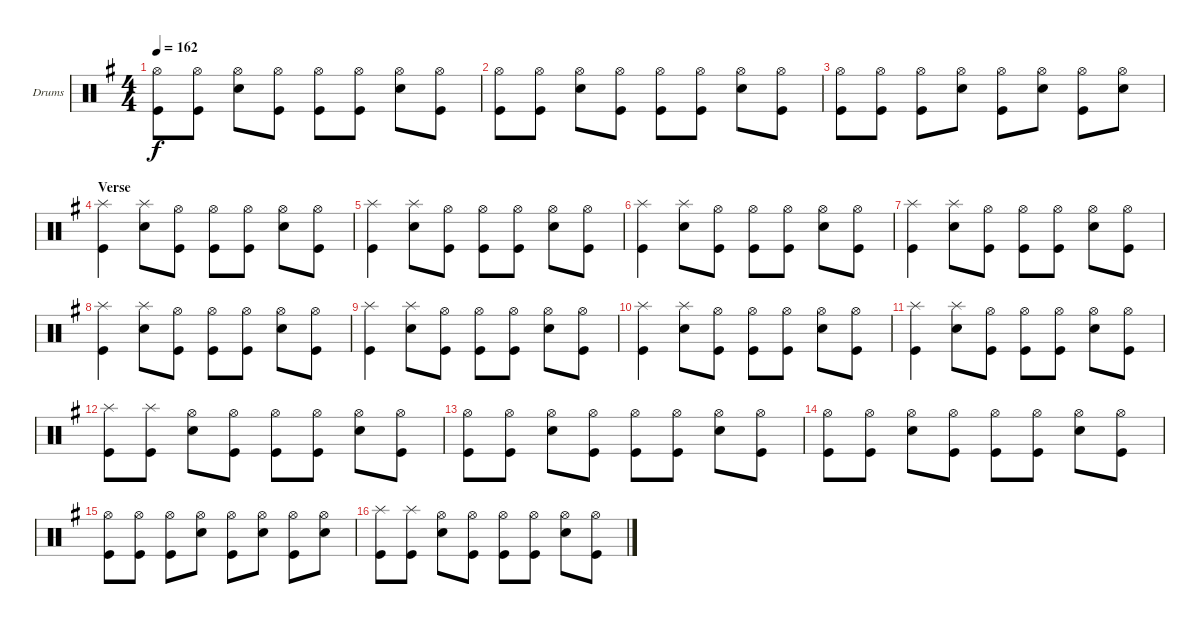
\defaultSystemsLayout 4
\bracketExtendMode groupsimilarinstruments
\firstSystemTrackNameOrientation horizontal
\otherSystemsTrackNameOrientation horizontal
\track ("Drumkit" "Drums") {instrument percussion}
\staff {score}
\articulation defaults
\ts (4 4)
\tempo 162
\clef neutral
\ks g
("Hi-Hat (open)" "Kick (hit)").8{dy f} ("Hi-Hat (open)" "Kick (hit)").8 ("Hi-Hat (open)" "Snare (hit) 2").8 ("Hi-Hat (open)" "Kick (hit)").8 ("Hi-Hat (open)" "Kick (hit)").8 ("Hi-Hat (open)" "Kick (hit)").8 ("Hi-Hat (open)" "Snare (hit) 2").8 ("Hi-Hat (open)" "Kick (hit)").8 |
("Hi-Hat (open)" "Kick (hit)").8 ("Hi-Hat (open)" "Kick (hit)").8 ("Hi-Hat (open)" "Snare (hit) 2").8 ("Hi-Hat (open)" "Kick (hit)").8 ("Hi-Hat (open)" "Kick (hit)").8 ("Hi-Hat (open)" "Kick (hit)").8 ("Hi-Hat (open)" "Snare (hit) 2").8 ("Hi-Hat (open)" "Kick (hit)").8 |
("Hi-Hat (open)" "Kick (hit)").8 ("Hi-Hat (open)" "Kick (hit)").8 ("Hi-Hat (open)" "Kick (hit)").8 ("Hi-Hat (open)" "Snare (hit) 2").8 ("Hi-Hat (open)" "Kick (hit)").8 ("Hi-Hat (open)" "Snare (hit) 2").8 ("Hi-Hat (open)" "Kick (hit)").8 ("Hi-Hat (open)" "Snare (hit) 2").8 |
\section ("" "Verse")
("Splash (hit)" "Kick (hit)").4 ("Splash (hit)" "Snare (hit) 2").8 ("Hi-Hat (open)" "Kick (hit)").8 ("Hi-Hat (open)" "Kick (hit)").8 ("Hi-Hat (open)" "Kick (hit)").8 ("Hi-Hat (open)" "Snare (hit) 2").8 ("Hi-Hat (open)" "Kick (hit)").8 |
("Splash (hit)" "Kick (hit)").4 ("Splash (hit)" "Snare (hit) 2").8 ("Hi-Hat (open)" "Kick (hit)").8 ("Hi-Hat (open)" "Kick (hit)").8 ("Hi-Hat (open)" "Kick (hit)").8 ("Hi-Hat (open)" "Snare (hit) 2").8 ("Hi-Hat (open)" "Kick (hit)").8 |
("Splash (hit)" "Kick (hit)").4 ("Splash (hit)" "Snare (hit) 2").8 ("Hi-Hat (open)" "Kick (hit)").8 ("Hi-Hat (open)" "Kick (hit)").8 ("Hi-Hat (open)" "Kick (hit)").8 ("Hi-Hat (open)" "Snare (hit) 2").8 ("Hi-Hat (open)" "Kick (hit)").8 |
("Splash (hit)" "Kick (hit)").4 ("Splash (hit)" "Snare (hit) 2").8 ("Hi-Hat (open)" "Kick (hit)").8 ("Hi-Hat (open)" "Kick (hit)").8 ("Hi-Hat (open)" "Kick (hit)").8 ("Hi-Hat (open)" "Snare (hit) 2").8 ("Hi-Hat (open)" "Kick (hit)").8 |
("Splash (hit)" "Kick (hit)").4 ("Splash (hit)" "Snare (hit) 2").8 ("Hi-Hat (open)" "Kick (hit)").8 ("Hi-Hat (open)" "Kick (hit)").8 ("Hi-Hat (open)" "Kick (hit)").8 ("Hi-Hat (open)" "Snare (hit) 2").8 ("Hi-Hat (open)" "Kick (hit)").8 |
("Splash (hit)" "Kick (hit)").4 ("Splash (hit)" "Snare (hit) 2").8 ("Hi-Hat (open)" "Kick (hit)").8 ("Hi-Hat (open)" "Kick (hit)").8 ("Hi-Hat (open)" "Kick (hit)").8 ("Hi-Hat (open)" "Snare (hit) 2").8 ("Hi-Hat (open)" "Kick (hit)").8 |
("Splash (hit)" "Kick (hit)").4 ("Splash (hit)" "Snare (hit) 2").8 ("Hi-Hat (open)" "Kick (hit)").8 ("Hi-Hat (open)" "Kick (hit)").8 ("Hi-Hat (open)" "Kick (hit)").8 ("Hi-Hat (open)" "Snare (hit) 2").8 ("Hi-Hat (open)" "Kick (hit)").8 |
("Splash (hit)" "Kick (hit)").4 ("Splash (hit)" "Snare (hit) 2").8 ("Hi-Hat (open)" "Kick (hit)").8 ("Hi-Hat (open)" "Kick (hit)").8 ("Hi-Hat (open)" "Kick (hit)").8 ("Hi-Hat (open)" "Snare (hit) 2").8 ("Hi-Hat (open)" "Kick (hit)").8 |
("Splash (hit)" "Kick (hit)").8 ("Splash (hit)" "Kick (hit)").8 ("Hi-Hat (open)" "Snare (hit) 2").8 ("Hi-Hat (open)" "Kick (hit)").8 ("Hi-Hat (open)" "Kick (hit)").8 ("Hi-Hat (open)" "Kick (hit)").8 ("Hi-Hat (open)" "Snare (hit) 2").8 ("Hi-Hat (open)" "Kick (hit)").8 |
("Hi-Hat (open)" "Kick (hit)").8 ("Hi-Hat (open)" "Kick (hit)").8 ("Hi-Hat (open)" "Snare (hit) 2").8 ("Hi-Hat (open)" "Kick (hit)").8 ("Hi-Hat (open)" "Kick (hit)").8 ("Hi-Hat (open)" "Kick (hit)").8 ("Hi-Hat (open)" "Snare (hit) 2").8 ("Hi-Hat (open)" "Kick (hit)").8 |
("Hi-Hat (open)" "Kick (hit)").8 ("Hi-Hat (open)" "Kick (hit)").8 ("Hi-Hat (open)" "Snare (hit) 2").8 ("Hi-Hat (open)" "Kick (hit)").8 ("Hi-Hat (open)" "Kick (hit)").8 ("Hi-Hat (open)" "Kick (hit)").8 ("Hi-Hat (open)" "Snare (hit) 2").8 ("Hi-Hat (open)" "Kick (hit)").8 |
("Hi-Hat (open)" "Kick (hit)").8 ("Hi-Hat (open)" "Kick (hit)").8 ("Hi-Hat (open)" "Kick (hit)").8 ("Hi-Hat (open)" "Snare (hit) 2").8 ("Hi-Hat (open)" "Kick (hit)").8 ("Hi-Hat (open)" "Snare (hit) 2").8 ("Hi-Hat (open)" "Kick (hit)").8 ("Hi-Hat (open)" "Snare (hit) 2").8 |
("Splash (hit)" "Kick (hit)").8 ("Splash (hit)" "Kick (hit)").8 ("Hi-Hat (open)" "Snare (hit) 2").8 ("Hi-Hat (open)" "Kick (hit)").8 ("Hi-Hat (open)" "Kick (hit)").8 ("Hi-Hat (open)" "Kick (hit)").8 ("Hi-Hat (open)" "Snare (hit) 2").8 ("Hi-Hat (open)" "Kick (hit)").8
